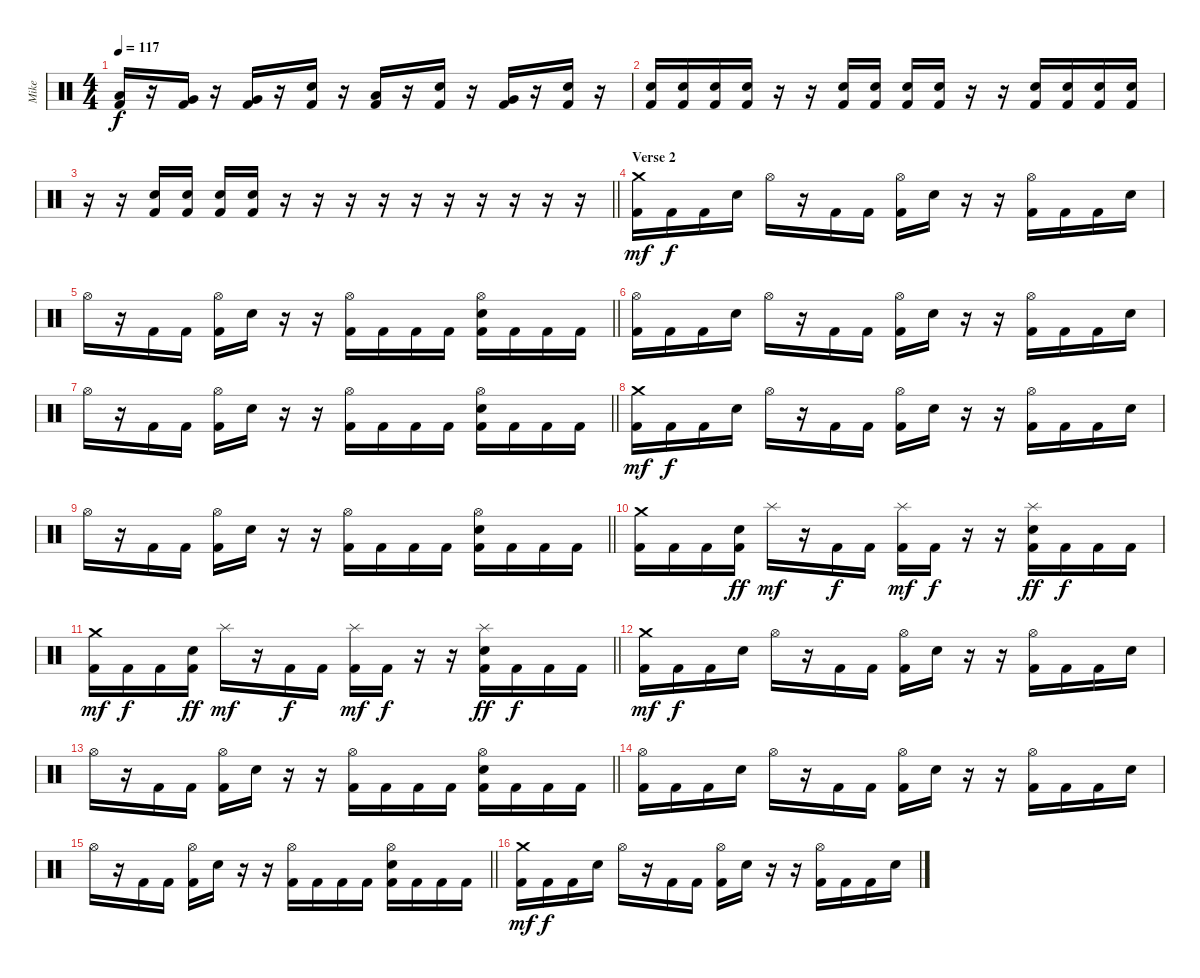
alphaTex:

\track ("Mike" "Mike") {instrument percussion}
\staff {score}
\articulation defaults
\ts (4 4)
\tempo 117
\clef neutral
\ks c
("Low Tom (hit)" "Kick (hit) 2").16{dy f} r.16 ("Very Low Tom (hit)" "Kick (hit) 2").16 r.16 ("Very Low Tom (hit)" "Kick (hit) 2").16 r.16 ("Snare (hit) 2" "Kick (hit) 2").16 r.16 ("Low Tom (hit)" "Kick (hit) 2").16 r.16 ("Snare (hit) 2" "Kick (hit) 2").16 r.16 ("Very Low Tom (hit)" "Kick (hit) 2").16 r.16 ("Snare (hit) 2" "Kick (hit) 2").16 r.16 |
("Snare (hit) 2" "Kick (hit) 2").16 ("Snare (hit) 2" "Kick (hit) 2").16 ("Snare (hit) 2" "Kick (hit) 2").16 ("Snare (hit) 2" "Kick (hit) 2").16 r.16 r.16 ("Snare (hit) 2" "Kick (hit) 2").16 ("Snare (hit) 2" "Kick (hit) 2").16 ("Snare (hit) 2" "Kick (hit) 2").16 ("Snare (hit) 2" "Kick (hit) 2").16 r.16 r.16 ("Snare (hit) 2" "Kick (hit) 2").16 ("Snare (hit) 2" "Kick (hit) 2").16 ("Snare (hit) 2" "Kick (hit) 2").16 ("Snare (hit) 2" "Kick (hit) 2").16 |
\barLineRight lightlight
r.16 r.16 ("Snare (hit) 2" "Kick (hit) 2").16 ("Snare (hit) 2" "Kick (hit) 2").16 ("Snare (hit) 2" "Kick (hit) 2").16 ("Snare (hit) 2" "Kick (hit) 2").16 r.16 r.16 r.16 r.16 r.16 r.16 r.16 r.16 r.16 r.16 |
\section ("" "Verse 2")
("Crash medium (hit)" "Kick (hit) 2").16{dy mf} "Kick (hit) 2".16{dy f} "Kick (hit) 2".16 "Snare (hit) 2".16 "Hi-Hat (open)".16 r.16 "Kick (hit) 2".16 "Kick (hit) 2".16 ("Hi-Hat (open)" "Kick (hit) 2").16 "Snare (hit) 2".16 r.16 r.16 ("Hi-Hat (open)" "Kick (hit) 2").16 "Kick (hit) 2".16 "Kick (hit) 2".16 "Snare (hit) 2".16 |
\barLineRight lightlight "Hi-Hat (open)".16
r.16 "Kick (hit) 2".16 "Kick (hit) 2".16 ("Hi-Hat (open)" "Kick (hit) 2").16 "Snare (hit) 2".16 r.16 r.16 ("Hi-Hat (open)" "Kick (hit) 2").16 "Kick (hit) 2".16 "Kick (hit) 2".16 "Kick (hit) 2".16 ("Hi-Hat (open)" "Snare (hit) 2" "Kick (hit) 2").16 "Kick (hit) 2".16 "Kick (hit) 2".16 "Kick (hit) 2".16 |
("Hi-Hat (open)" "Kick (hit) 2").16 "Kick (hit) 2".16 "Kick (hit) 2".16 "Snare (hit) 2".16 "Hi-Hat (open)".16 r.16 "Kick (hit) 2".16 "Kick (hit) 2".16 ("Hi-Hat (open)" "Kick (hit) 2").16 "Snare (hit) 2".16 r.16 r.16 ("Hi-Hat (open)" "Kick (hit) 2").16 "Kick (hit) 2".16 "Kick (hit) 2".16 "Snare (hit) 2".16 |
\barLineRight lightlight "Hi-Hat (open)".16
r.16 "Kick (hit) 2".16 "Kick (hit) 2".16 ("Hi-Hat (open)" "Kick (hit) 2").16 "Snare (hit) 2".16 r.16 r.16 ("Hi-Hat (open)" "Kick (hit) 2").16 "Kick (hit) 2".16 "Kick (hit) 2".16 "Kick (hit) 2".16 ("Hi-Hat (open)" "Snare (hit) 2" "Kick (hit) 2").16 "Kick (hit) 2".16 "Kick (hit) 2".16 "Kick (hit) 2".16 |
("Crash medium (hit)" "Kick (hit) 2").16{dy mf} "Kick (hit) 2".16{dy f} "Kick (hit) 2".16 "Snare (hit) 2".16 "Hi-Hat (open)".16 r.16 "Kick (hit) 2".16 "Kick (hit) 2".16 ("Hi-Hat (open)" "Kick (hit) 2").16 "Snare (hit) 2".16 r.16 r.16 ("Hi-Hat (open)" "Kick (hit) 2").16 "Kick (hit) 2".16 "Kick (hit) 2".16 "Snare (hit) 2".16 |
\barLineRight lightlight "Hi-Hat (open)".16
r.16 "Kick (hit) 2".16 "Kick (hit) 2".16 ("Hi-Hat (open)" "Kick (hit) 2").16 "Snare (hit) 2".16 r.16 r.16 ("Hi-Hat (open)" "Kick (hit) 2").16 "Kick (hit) 2".16 "Kick (hit) 2".16 "Kick (hit) 2".16 ("Hi-Hat (open)" "Snare (hit) 2" "Kick (hit) 2").16 "Kick (hit) 2".16 "Kick (hit) 2".16 "Kick (hit) 2".16 |
("Crash medium (hit)" "Kick (hit) 2").16 "Kick (hit) 2".16 "Kick (hit) 2".16 ("Snare (hit) 2" "Kick (hit) 2").16{dy ff} "Splash (hit)".16{dy mf} r.16 "Kick (hit) 2".16{dy f} "Kick (hit) 2".16 ("Splash (hit)" "Kick (hit) 2").16{dy mf} "Kick (hit) 2".16{dy f} r.16 r.16 ("Splash (hit)" "Snare (hit) 2" "Kick (hit) 2").16{dy ff} "Kick (hit) 2".16{dy f} "Kick (hit) 2".16 "Kick (hit) 2".16 |
\barLineRight lightlight
("Crash medium (hit)" "Kick (hit) 2").16{dy mf} "Kick (hit) 2".16{dy f} "Kick (hit) 2".16 ("Snare (hit) 2" "Kick (hit) 2").16{dy ff} "Splash (hit)".16{dy mf} r.16 "Kick (hit) 2".16{dy f} "Kick (hit) 2".16 ("Splash (hit)" "Kick (hit) 2").16{dy mf} "Kick (hit) 2".16{dy f} r.16 r.16 ("Splash (hit)" "Snare (hit) 2" "Kick (hit) 2").16{dy ff} "Kick (hit) 2".16{dy f} "Kick (hit) 2".16 "Kick (hit) 2".16 |
("Crash medium (hit)" "Kick (hit) 2").16{dy mf} "Kick (hit) 2".16{dy f} "Kick (hit) 2".16 "Snare (hit) 2".16 "Hi-Hat (open)".16 r.16 "Kick (hit) 2".16 "Kick (hit) 2".16 ("Hi-Hat (open)" "Kick (hit) 2").16 "Snare (hit) 2".16 r.16 r.16 ("Hi-Hat (open)" "Kick (hit) 2").16 "Kick (hit) 2".16 "Kick (hit) 2".16 "Snare (hit) 2".16 |
\barLineRight lightlight "Hi-Hat (open)".16
r.16 "Kick (hit) 2".16 "Kick (hit) 2".16 ("Hi-Hat (open)" "Kick (hit) 2").16 "Snare (hit) 2".16 r.16 r.16 ("Hi-Hat (open)" "Kick (hit) 2").16 "Kick (hit) 2".16 "Kick (hit) 2".16 "Kick (hit) 2".16 ("Hi-Hat (open)" "Snare (hit) 2" "Kick (hit) 2").16 "Kick (hit) 2".16 "Kick (hit) 2".16 "Kick (hit) 2".16 |
("Hi-Hat (open)" "Kick (hit) 2").16 "Kick (hit) 2".16 "Kick (hit) 2".16 "Snare (hit) 2".16 "Hi-Hat (open)".16 r.16 "Kick (hit) 2".16 "Kick (hit) 2".16 ("Hi-Hat (open)" "Kick (hit) 2").16 "Snare (hit) 2".16 r.16 r.16 ("Hi-Hat (open)" "Kick (hit) 2").16 "Kick (hit) 2".16 "Kick (hit) 2".16 "Snare (hit) 2".16 |
\barLineRight lightlight "Hi-Hat (open)".16
r.16 "Kick (hit) 2".16 "Kick (hit) 2".16 ("Hi-Hat (open)" "Kick (hit) 2").16 "Snare (hit) 2".16 r.16 r.16 ("Hi-Hat (open)" "Kick (hit) 2").16 "Kick (hit) 2".16 "Kick (hit) 2".16 "Kick (hit) 2".16 ("Hi-Hat (open)" "Snare (hit) 2" "Kick (hit) 2").16 "Kick (hit) 2".16 "Kick (hit) 2".16 "Kick (hit) 2".16 |
("Crash medium (hit)" "Kick (hit) 2").16{dy mf} "Kick (hit) 2".16{dy f} "Kick (hit) 2".16 "Snare (hit) 2".16 "Hi-Hat (open)".16 r.16 "Kick (hit) 2".16 "Kick (hit) 2".16 ("Hi-Hat (open)" "Kick (hit) 2").16 "Snare (hit) 2".16 r.16 r.16 ("Hi-Hat (open)" "Kick (hit) 2").16 "Kick (hit) 2".16 "Kick (hit) 2".16 "Snare (hit) 2".16
